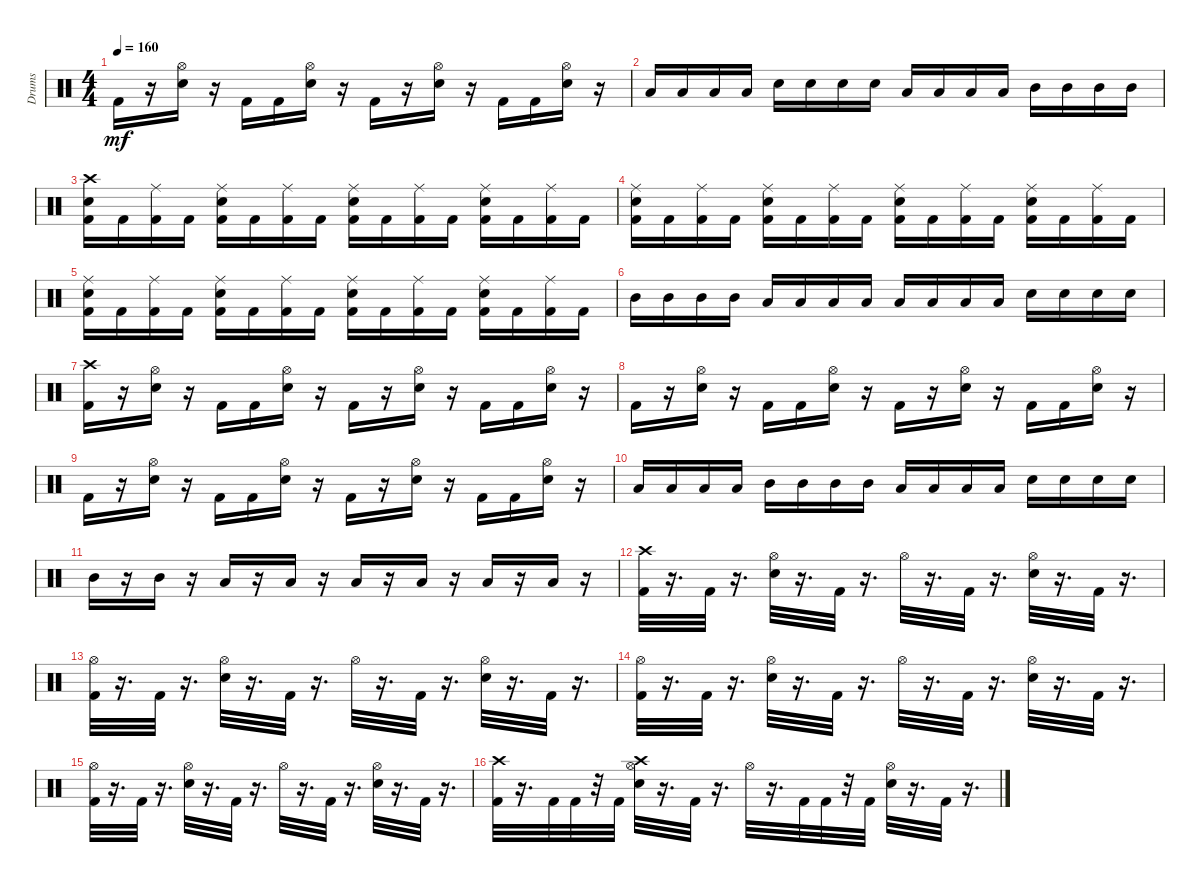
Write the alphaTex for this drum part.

\track ("Drums               " "Drums     ") {instrument percussion}
\staff {score}
\articulation defaults
\ts (4 4)
\tempo 160
\clef neutral
\ks c "Kick (hit) 2".16{dy mf}
r.16 ("Snare (hit) 2" "Hi-Hat (open)").16 r.16 "Kick (hit) 2".16 "Kick (hit) 2".16 ("Snare (hit) 2" "Hi-Hat (open)").16 r.16 "Kick (hit) 2".16 r.16 ("Snare (hit) 2" "Hi-Hat (open)").16 r.16 "Kick (hit) 2".16 "Kick (hit) 2".16 ("Snare (hit) 2" "Hi-Hat (open)").16 r.16 |
"Low Floor Tom (hit)".16 "Low Floor Tom (hit)".16 "Low Floor Tom (hit)".16 "Low Floor Tom (hit)".16 "Snare (hit) 2".16 "Snare (hit) 2".16 "Snare (hit) 2".16 "Snare (hit) 2".16 "Low Tom (hit)".16 "Low Tom (hit)".16 "Low Tom (hit)".16 "Low Tom (hit)".16 "Mid Tom (hit)".16 "Mid Tom (hit)".16 "Mid Tom (hit)".16 "Mid Tom (hit)".16 |
("Crash high (hit)" "Kick (hit) 2" "Snare (hit) 2").16 "Kick (hit) 2".16 ("Kick (hit) 2" "Ride (middle)").16 "Kick (hit) 2".16 ("Kick (hit) 2" "Snare (hit) 2" "Ride (middle)").16 "Kick (hit) 2".16 ("Kick (hit) 2" "Ride (middle)").16 "Kick (hit) 2".16 ("Kick (hit) 2" "Snare (hit) 2" "Ride (middle)").16 "Kick (hit) 2".16 ("Kick (hit) 2" "Ride (middle)").16 "Kick (hit) 2".16 ("Kick (hit) 2" "Snare (hit) 2" "Ride (middle)").16 "Kick (hit) 2".16 ("Kick (hit) 2" "Ride (middle)").16 "Kick (hit) 2".16 |
("Kick (hit) 2" "Snare (hit) 2" "Ride (middle)").16 "Kick (hit) 2".16 ("Kick (hit) 2" "Ride (middle)").16 "Kick (hit) 2".16 ("Kick (hit) 2" "Snare (hit) 2" "Ride (middle)").16 "Kick (hit) 2".16 ("Kick (hit) 2" "Ride (middle)").16 "Kick (hit) 2".16 ("Kick (hit) 2" "Snare (hit) 2" "Ride (middle)").16 "Kick (hit) 2".16 ("Kick (hit) 2" "Ride (middle)").16 "Kick (hit) 2".16 ("Kick (hit) 2" "Snare (hit) 2" "Ride (middle)").16 "Kick (hit) 2".16 ("Kick (hit) 2" "Ride (middle)").16 "Kick (hit) 2".16 |
("Kick (hit) 2" "Snare (hit) 2" "Ride (middle)").16 "Kick (hit) 2".16 ("Kick (hit) 2" "Ride (middle)").16 "Kick (hit) 2".16 ("Kick (hit) 2" "Snare (hit) 2" "Ride (middle)").16 "Kick (hit) 2".16 ("Kick (hit) 2" "Ride (middle)").16 "Kick (hit) 2".16 ("Kick (hit) 2" "Snare (hit) 2" "Ride (middle)").16 "Kick (hit) 2".16 ("Kick (hit) 2" "Ride (middle)").16 "Kick (hit) 2".16 ("Kick (hit) 2" "Snare (hit) 2" "Ride (middle)").16 "Kick (hit) 2".16 ("Kick (hit) 2" "Ride (middle)").16 "Kick (hit) 2".16 |
"Mid Tom (hit)".16 "Mid Tom (hit)".16 "Mid Tom (hit)".16 "Mid Tom (hit)".16 "Low Floor Tom (hit)".16 "Low Floor Tom (hit)".16 "Low Floor Tom (hit)".16 "Low Floor Tom (hit)".16 "Low Tom (hit)".16 "Low Tom (hit)".16 "Low Tom (hit)".16 "Low Tom (hit)".16 "Snare (hit) 2".16 "Snare (hit) 2".16 "Snare (hit) 2".16 "Snare (hit) 2".16 |
("Crash high (hit)" "Kick (hit) 2").16 r.16 ("Snare (hit) 2" "Hi-Hat (open)").16 r.16 "Kick (hit) 2".16 "Kick (hit) 2".16 ("Snare (hit) 2" "Hi-Hat (open)").16 r.16 "Kick (hit) 2".16 r.16 ("Snare (hit) 2" "Hi-Hat (open)").16 r.16 "Kick (hit) 2".16 "Kick (hit) 2".16 ("Snare (hit) 2" "Hi-Hat (open)").16 r.16 |
"Kick (hit) 2".16 r.16 ("Snare (hit) 2" "Hi-Hat (open)").16 r.16 "Kick (hit) 2".16 "Kick (hit) 2".16 ("Snare (hit) 2" "Hi-Hat (open)").16 r.16 "Kick (hit) 2".16 r.16 ("Snare (hit) 2" "Hi-Hat (open)").16 r.16 "Kick (hit) 2".16 "Kick (hit) 2".16 ("Snare (hit) 2" "Hi-Hat (open)").16 r.16 |
"Kick (hit) 2".16 r.16 ("Snare (hit) 2" "Hi-Hat (open)").16 r.16 "Kick (hit) 2".16 "Kick (hit) 2".16 ("Snare (hit) 2" "Hi-Hat (open)").16 r.16 "Kick (hit) 2".16 r.16 ("Snare (hit) 2" "Hi-Hat (open)").16 r.16 "Kick (hit) 2".16 "Kick (hit) 2".16 ("Snare (hit) 2" "Hi-Hat (open)").16 r.16 |
"Low Tom (hit)".16 "Low Tom (hit)".16 "Low Tom (hit)".16 "Low Tom (hit)".16 "Mid Tom (hit)".16 "Mid Tom (hit)".16 "Mid Tom (hit)".16 "Mid Tom (hit)".16 "Low Tom (hit)".16 "Low Tom (hit)".16 "Low Tom (hit)".16 "Low Tom (hit)".16 "Snare (hit) 2".16 "Snare (hit) 2".16 "Snare (hit) 2".16 "Snare (hit) 2".16 |
"Mid Tom (hit)".16 r.16 "Mid Tom (hit)".16 r.16 "Low Floor Tom (hit)".16 r.16 "Low Floor Tom (hit)".16 r.16 "Low Tom (hit)".16 r.16 "Low Tom (hit)".16 r.16 "Low Tom (hit)".16 r.16 "Low Floor Tom (hit)".16 r.16 |
("Kick (hit) 2" "Crash high (hit)").32 r.16{d} "Kick (hit) 2".32 r.16{d} ("Hi-Hat (open)" "Snare (hit) 2").32 r.16{d} "Kick (hit) 2".32 r.16{d} "Hi-Hat (open)".32 r.16{d} "Kick (hit) 2".32 r.16{d} ("Hi-Hat (open)" "Snare (hit) 2").32 r.16{d} "Kick (hit) 2".32 r.16{d} |
("Kick (hit) 2" "Hi-Hat (open)").32 r.16{d} "Kick (hit) 2".32 r.16{d} ("Hi-Hat (open)" "Snare (hit) 2").32 r.16{d} "Kick (hit) 2".32 r.16{d} "Hi-Hat (open)".32 r.16{d} "Kick (hit) 2".32 r.16{d} ("Hi-Hat (open)" "Snare (hit) 2").32 r.16{d} "Kick (hit) 2".32 r.16{d} |
("Kick (hit) 2" "Hi-Hat (open)").32 r.16{d} "Kick (hit) 2".32 r.16{d} ("Hi-Hat (open)" "Snare (hit) 2").32 r.16{d} "Kick (hit) 2".32 r.16{d} "Hi-Hat (open)".32 r.16{d} "Kick (hit) 2".32 r.16{d} ("Hi-Hat (open)" "Snare (hit) 2").32 r.16{d} "Kick (hit) 2".32 r.16{d} |
("Kick (hit) 2" "Hi-Hat (open)").32 r.16{d} "Kick (hit) 2".32 r.16{d} ("Hi-Hat (open)" "Snare (hit) 2").32 r.16{d} "Kick (hit) 2".32 r.16{d} "Hi-Hat (open)".32 r.16{d} "Kick (hit) 2".32 r.16{d} ("Hi-Hat (open)" "Snare (hit) 2").32 r.16{d} "Kick (hit) 2".32 r.16{d} |
("Kick (hit) 2" "Crash high (hit)").32 r.16{d} "Kick (hit) 2".32 "Kick (hit) 2".32 r.32 "Kick (hit) 2".32 ("Hi-Hat (open)" "Snare (hit) 2" "Crash high (hit)").32 r.16{d} "Kick (hit) 2".32 r.16{d} "Hi-Hat (open)".32 r.16{d} "Kick (hit) 2".32 "Kick (hit) 2".32 r.32 "Kick (hit) 2".32 ("Hi-Hat (open)" "Snare (hit) 2").32 r.16{d} "Kick (hit) 2".32 r.16{d}
